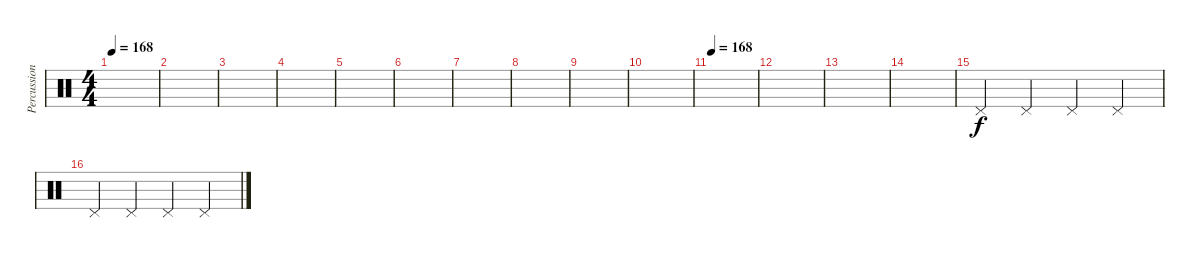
\track ("Percussion" "Percussion") {instrument percussion}
\staff {score}
\articulation defaults
\ts (4 4)
\tempo 168
\tempo 68
\tempo 168
\clef neutral
\ks c
|
|
|
|
|
|
|
|
|
|
\tempo 168
|
|
|
|
"Pedal Hi-Hat (hit)".4 "Pedal Hi-Hat (hit)".4 "Pedal Hi-Hat (hit)".4 "Pedal Hi-Hat (hit)".4 |
"Pedal Hi-Hat (hit)".4 "Pedal Hi-Hat (hit)".4 "Pedal Hi-Hat (hit)".4 "Pedal Hi-Hat (hit)".4
